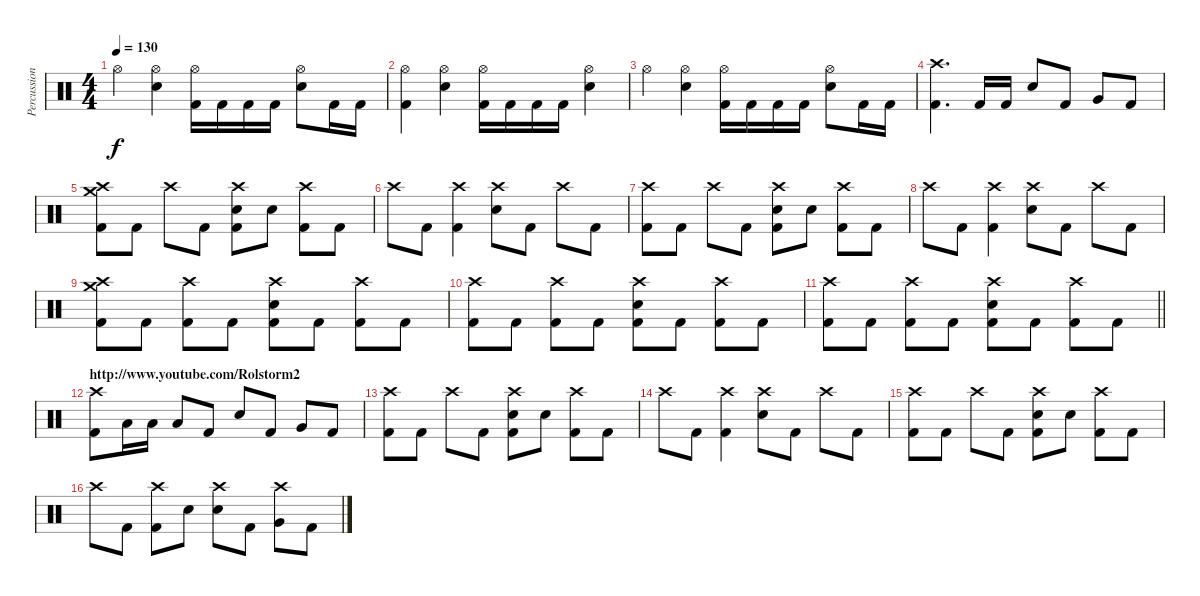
\track ("Percussion" "Percussion") {instrument percussion}
\staff {score}
\articulation defaults
\ts (4 4)
\tempo 130
\clef neutral
\ks c "Hi-Hat (open)".4{dy f}
("Hi-Hat (open)" "Electric Snare (hit)").4 ("Hi-Hat (open)" "Kick (hit) 2").16 "Kick (hit) 2".16 "Kick (hit) 2".16 "Kick (hit) 2".16 ("Hi-Hat (open)" "Electric Snare (hit)").8 "Kick (hit) 2".16 "Kick (hit) 2".16 |
("Hi-Hat (open)" "Kick (hit) 2").4 ("Hi-Hat (open)" "Electric Snare (hit)").4 ("Hi-Hat (open)" "Kick (hit) 2").16 "Kick (hit) 2".16 "Kick (hit) 2".16 "Kick (hit) 2".16 ("Hi-Hat (open)" "Electric Snare (hit)").4 |
"Hi-Hat (open)".4 ("Hi-Hat (open)" "Electric Snare (hit)").4 ("Hi-Hat (open)" "Kick (hit) 2").16 "Kick (hit) 2".16 "Kick (hit) 2".16 "Kick (hit) 2".16 ("Hi-Hat (open)" "Electric Snare (hit)").8 "Kick (hit) 2".16 "Kick (hit) 2".16 |
("Crash high (hit)" "Kick (hit) 2").4{d} "Kick (hit) 2".16 "Kick (hit) 2".16 "Electric Snare (hit)".8 "Kick (hit) 2".8 "Very Low Tom (hit)".8 "Kick (hit) 2".8 |
("Crash high (hit)" "Crash medium (hit)" "Kick (hit) 2").8 "Kick (hit) 2".8 "Crash high (hit)".8 "Kick (hit) 2".8 ("Crash high (hit)" "Electric Snare (hit)" "Kick (hit) 2").8 "Electric Snare (hit)".8 ("Crash high (hit)" "Kick (hit) 2").8 "Kick (hit) 2".8 |
"Crash high (hit)".8 "Kick (hit) 2".8 ("Crash high (hit)" "Kick (hit) 2").4 ("Crash high (hit)" "Electric Snare (hit)").8 "Kick (hit) 2".8 "Crash high (hit)".8 "Kick (hit) 2".8 |
("Crash high (hit)" "Kick (hit) 2").8 "Kick (hit) 2".8 "Crash high (hit)".8 "Kick (hit) 2".8 ("Crash high (hit)" "Electric Snare (hit)" "Kick (hit) 2").8 "Electric Snare (hit)".8 ("Crash high (hit)" "Kick (hit) 2").8 "Kick (hit) 2".8 |
"Crash high (hit)".8 "Kick (hit) 2".8 ("Crash high (hit)" "Kick (hit) 2").4 ("Crash high (hit)" "Electric Snare (hit)").8 "Kick (hit) 2".8 "Crash high (hit)".8 "Kick (hit) 2".8 |
("Crash high (hit)" "Crash medium (hit)" "Kick (hit) 2").8 "Kick (hit) 2".8 ("Crash high (hit)" "Kick (hit) 2").8 "Kick (hit) 2".8 ("Crash high (hit)" "Electric Snare (hit)" "Kick (hit) 2").8 "Kick (hit) 2".8 ("Crash high (hit)" "Kick (hit) 2").8 "Kick (hit) 2".8 |
("Crash high (hit)" "Kick (hit) 2").8 "Kick (hit) 2".8 ("Crash high (hit)" "Kick (hit) 2").8 "Kick (hit) 2".8 ("Crash high (hit)" "Electric Snare (hit)" "Kick (hit) 2").8 "Kick (hit) 2".8 ("Crash high (hit)" "Kick (hit) 2").8 "Kick (hit) 2".8 |
\barLineRight lightlight
("Crash high (hit)" "Kick (hit) 2").8 "Kick (hit) 2".8 ("Crash high (hit)" "Kick (hit) 2").8 "Kick (hit) 2".8 ("Crash high (hit)" "Electric Snare (hit)" "Kick (hit) 2").8 "Kick (hit) 2".8 ("Crash high (hit)" "Kick (hit) 2").8 "Kick (hit) 2".8 |
\section ("" "http://www.youtube.com/Rolstorm2")
("Crash high (hit)" "Kick (hit) 2").8 "Low Tom (hit)".16 "Low Tom (hit)".16 "Low Tom (hit)".8 "Kick (hit) 2".8 "Electric Snare (hit)".8 "Kick (hit) 2".8 "Very Low Tom (hit)".8 "Kick (hit) 2".8 |
("Crash high (hit)" "Kick (hit) 2").8 "Kick (hit) 2".8 "Crash high (hit)".8 "Kick (hit) 2".8 ("Crash high (hit)" "Electric Snare (hit)" "Kick (hit) 2").8 "Electric Snare (hit)".8 ("Crash high (hit)" "Kick (hit) 2").8 "Kick (hit) 2".8 |
"Crash high (hit)".8 "Kick (hit) 2".8 ("Crash high (hit)" "Kick (hit) 2").4 ("Crash high (hit)" "Electric Snare (hit)").8 "Kick (hit) 2".8 "Crash high (hit)".8 "Kick (hit) 2".8 |
("Crash high (hit)" "Kick (hit) 2").8 "Kick (hit) 2".8 "Crash high (hit)".8 "Kick (hit) 2".8 ("Crash high (hit)" "Electric Snare (hit)" "Kick (hit) 2").8 "Electric Snare (hit)".8 ("Crash high (hit)" "Kick (hit) 2").8 "Kick (hit) 2".8 |
"Crash high (hit)".8 "Kick (hit) 2".8 ("Crash high (hit)" "Kick (hit) 2").8 "Electric Snare (hit)".8 ("Crash high (hit)" "Electric Snare (hit)").8 "Kick (hit) 2".8 ("Crash high (hit)" "Very Low Tom (hit)").8 "Kick (hit) 2".8
